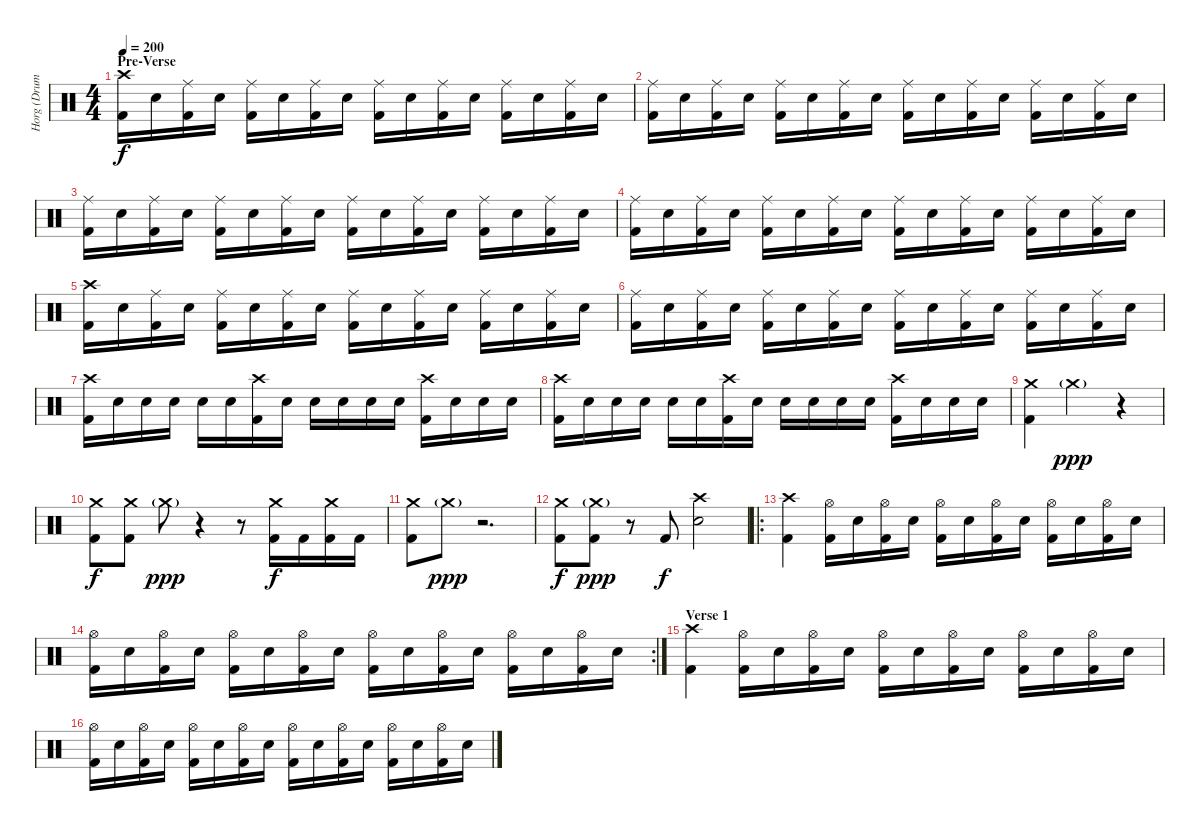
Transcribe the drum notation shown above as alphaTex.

\track ("Horg (Drums)" "Horg (Drum") {instrument percussion}
\staff {score}
\articulation defaults
\ts (4 4)
\section ("" "Pre-Verse")
\tempo 200
\clef neutral
\ks c
("Crash high (hit)" "Kick (hit) 2").16{dy f} "Electric Snare (hit)".16 ("Ride (middle)" "Kick (hit) 2").16 "Electric Snare (hit)".16 ("Ride (middle)" "Kick (hit) 2").16 "Electric Snare (hit)".16 ("Ride (middle)" "Kick (hit) 2").16 "Electric Snare (hit)".16 ("Ride (middle)" "Kick (hit) 2").16 "Electric Snare (hit)".16 ("Ride (middle)" "Kick (hit) 2").16 "Electric Snare (hit)".16 ("Ride (middle)" "Kick (hit) 2").16 "Electric Snare (hit)".16 ("Ride (middle)" "Kick (hit) 2").16 "Electric Snare (hit)".16 |
("Ride (middle)" "Kick (hit) 2").16 "Electric Snare (hit)".16 ("Ride (middle)" "Kick (hit) 2").16 "Electric Snare (hit)".16 ("Ride (middle)" "Kick (hit) 2").16 "Electric Snare (hit)".16 ("Ride (middle)" "Kick (hit) 2").16 "Electric Snare (hit)".16 ("Ride (middle)" "Kick (hit) 2").16 "Electric Snare (hit)".16 ("Ride (middle)" "Kick (hit) 2").16 "Electric Snare (hit)".16 ("Ride (middle)" "Kick (hit) 2").16 "Electric Snare (hit)".16 ("Ride (middle)" "Kick (hit) 2").16 "Electric Snare (hit)".16 |
("Ride (middle)" "Kick (hit) 2").16 "Electric Snare (hit)".16 ("Ride (middle)" "Kick (hit) 2").16 "Electric Snare (hit)".16 ("Ride (middle)" "Kick (hit) 2").16 "Electric Snare (hit)".16 ("Ride (middle)" "Kick (hit) 2").16 "Electric Snare (hit)".16 ("Ride (middle)" "Kick (hit) 2").16 "Electric Snare (hit)".16 ("Ride (middle)" "Kick (hit) 2").16 "Electric Snare (hit)".16 ("Ride (middle)" "Kick (hit) 2").16 "Electric Snare (hit)".16 ("Ride (middle)" "Kick (hit) 2").16 "Electric Snare (hit)".16 |
("Ride (middle)" "Kick (hit) 2").16 "Electric Snare (hit)".16 ("Ride (middle)" "Kick (hit) 2").16 "Electric Snare (hit)".16 ("Ride (middle)" "Kick (hit) 2").16 "Electric Snare (hit)".16 ("Ride (middle)" "Kick (hit) 2").16 "Electric Snare (hit)".16 ("Ride (middle)" "Kick (hit) 2").16 "Electric Snare (hit)".16 ("Ride (middle)" "Kick (hit) 2").16 "Electric Snare (hit)".16 ("Ride (middle)" "Kick (hit) 2").16 "Electric Snare (hit)".16 ("Ride (middle)" "Kick (hit) 2").16 "Electric Snare (hit)".16 |
("Crash high (hit)" "Kick (hit) 2").16 "Electric Snare (hit)".16 ("Ride (middle)" "Kick (hit) 2").16 "Electric Snare (hit)".16 ("Ride (middle)" "Kick (hit) 2").16 "Electric Snare (hit)".16 ("Ride (middle)" "Kick (hit) 2").16 "Electric Snare (hit)".16 ("Ride (middle)" "Kick (hit) 2").16 "Electric Snare (hit)".16 ("Ride (middle)" "Kick (hit) 2").16 "Electric Snare (hit)".16 ("Ride (middle)" "Kick (hit) 2").16 "Electric Snare (hit)".16 ("Ride (middle)" "Kick (hit) 2").16 "Electric Snare (hit)".16 |
("Ride (middle)" "Kick (hit) 2").16 "Electric Snare (hit)".16 ("Ride (middle)" "Kick (hit) 2").16 "Electric Snare (hit)".16 ("Ride (middle)" "Kick (hit) 2").16 "Electric Snare (hit)".16 ("Ride (middle)" "Kick (hit) 2").16 "Electric Snare (hit)".16 ("Ride (middle)" "Kick (hit) 2").16 "Electric Snare (hit)".16 ("Ride (middle)" "Kick (hit) 2").16 "Electric Snare (hit)".16 ("Ride (middle)" "Kick (hit) 2").16 "Electric Snare (hit)".16 ("Ride (middle)" "Kick (hit) 2").16 "Electric Snare (hit)".16 |
("Crash high (hit)" "Kick (hit) 2").16 "Electric Snare (hit)".16 "Electric Snare (hit)".16 "Electric Snare (hit)".16 "Electric Snare (hit)".16 "Electric Snare (hit)".16 ("Crash high (hit)" "Kick (hit) 2").16 "Electric Snare (hit)".16 "Electric Snare (hit)".16 "Electric Snare (hit)".16 "Electric Snare (hit)".16 "Electric Snare (hit)".16 ("Crash high (hit)" "Kick (hit) 2").16 "Electric Snare (hit)".16 "Electric Snare (hit)".16 "Electric Snare (hit)".16 |
("Crash high (hit)" "Kick (hit) 2").16 "Electric Snare (hit)".16 "Electric Snare (hit)".16 "Electric Snare (hit)".16 "Electric Snare (hit)".16 "Electric Snare (hit)".16 ("Crash high (hit)" "Kick (hit) 2").16 "Electric Snare (hit)".16 "Electric Snare (hit)".16 "Electric Snare (hit)".16 "Electric Snare (hit)".16 "Electric Snare (hit)".16 ("Crash high (hit)" "Kick (hit) 2").16 "Electric Snare (hit)".16 "Electric Snare (hit)".16 "Electric Snare (hit)".16 |
("Crash medium (hit)" "Kick (hit) 2").4 "Crash medium (hit)"{g}.2{dy ppp volume 0} r.4 |
("Crash medium (hit)" "Kick (hit) 2").8{dy f volume 15} ("Crash medium (hit)" "Kick (hit) 2").8 "Crash medium (hit)"{g}.8{dy ppp} r.4 r.8 ("Crash medium (hit)" "Kick (hit) 2").16{dy f} "Kick (hit) 2".16 ("Crash medium (hit)" "Kick (hit) 2").16 "Kick (hit) 2".16 |
("Crash medium (hit)" "Kick (hit) 2").8 "Crash medium (hit)"{g}.8{dy ppp} r.2{d} |
("Crash medium (hit)" "Kick (hit) 2").8{dy f} ("Crash medium (hit)"{g} "Kick (hit) 2").8{dy ppp} r.8 "Kick (hit) 2".8{dy f} ("Crash high (hit)" "Electric Snare (hit)").2 |
\ro
("Crash high (hit)" "Kick (hit) 2").4 ("Hi-Hat (open)" "Kick (hit) 2").16 "Electric Snare (hit)".16 ("Hi-Hat (open)" "Kick (hit) 2").16 "Electric Snare (hit)".16 ("Hi-Hat (open)" "Kick (hit) 2").16 "Electric Snare (hit)".16 ("Hi-Hat (open)" "Kick (hit) 2").16 "Electric Snare (hit)".16 ("Hi-Hat (open)" "Kick (hit) 2").16 "Electric Snare (hit)".16 ("Hi-Hat (open)" "Kick (hit) 2").16 "Electric Snare (hit)".16 |
\rc 2
("Hi-Hat (open)" "Kick (hit) 2").16 "Electric Snare (hit)".16 ("Hi-Hat (open)" "Kick (hit) 2").16 "Electric Snare (hit)".16 ("Hi-Hat (open)" "Kick (hit) 2").16 "Electric Snare (hit)".16 ("Hi-Hat (open)" "Kick (hit) 2").16 "Electric Snare (hit)".16 ("Hi-Hat (open)" "Kick (hit) 2").16 "Electric Snare (hit)".16 ("Hi-Hat (open)" "Kick (hit) 2").16 "Electric Snare (hit)".16 ("Hi-Hat (open)" "Kick (hit) 2").16 "Electric Snare (hit)".16 ("Hi-Hat (open)" "Kick (hit) 2").16 "Electric Snare (hit)".16 |
\section ("" "Verse 1")
("Crash high (hit)" "Kick (hit) 2").4 ("Hi-Hat (open)" "Kick (hit) 2").16 "Electric Snare (hit)".16 ("Hi-Hat (open)" "Kick (hit) 2").16 "Electric Snare (hit)".16 ("Hi-Hat (open)" "Kick (hit) 2").16 "Electric Snare (hit)".16 ("Hi-Hat (open)" "Kick (hit) 2").16 "Electric Snare (hit)".16 ("Hi-Hat (open)" "Kick (hit) 2").16 "Electric Snare (hit)".16 ("Hi-Hat (open)" "Kick (hit) 2").16 "Electric Snare (hit)".16 |
("Hi-Hat (open)" "Kick (hit) 2").16 "Electric Snare (hit)".16 ("Hi-Hat (open)" "Kick (hit) 2").16 "Electric Snare (hit)".16 ("Hi-Hat (open)" "Kick (hit) 2").16 "Electric Snare (hit)".16 ("Hi-Hat (open)" "Kick (hit) 2").16 "Electric Snare (hit)".16 ("Hi-Hat (open)" "Kick (hit) 2").16 "Electric Snare (hit)".16 ("Hi-Hat (open)" "Kick (hit) 2").16 "Electric Snare (hit)".16 ("Hi-Hat (open)" "Kick (hit) 2").16 "Electric Snare (hit)".16 ("Hi-Hat (open)" "Kick (hit) 2").16 "Electric Snare (hit)".16
